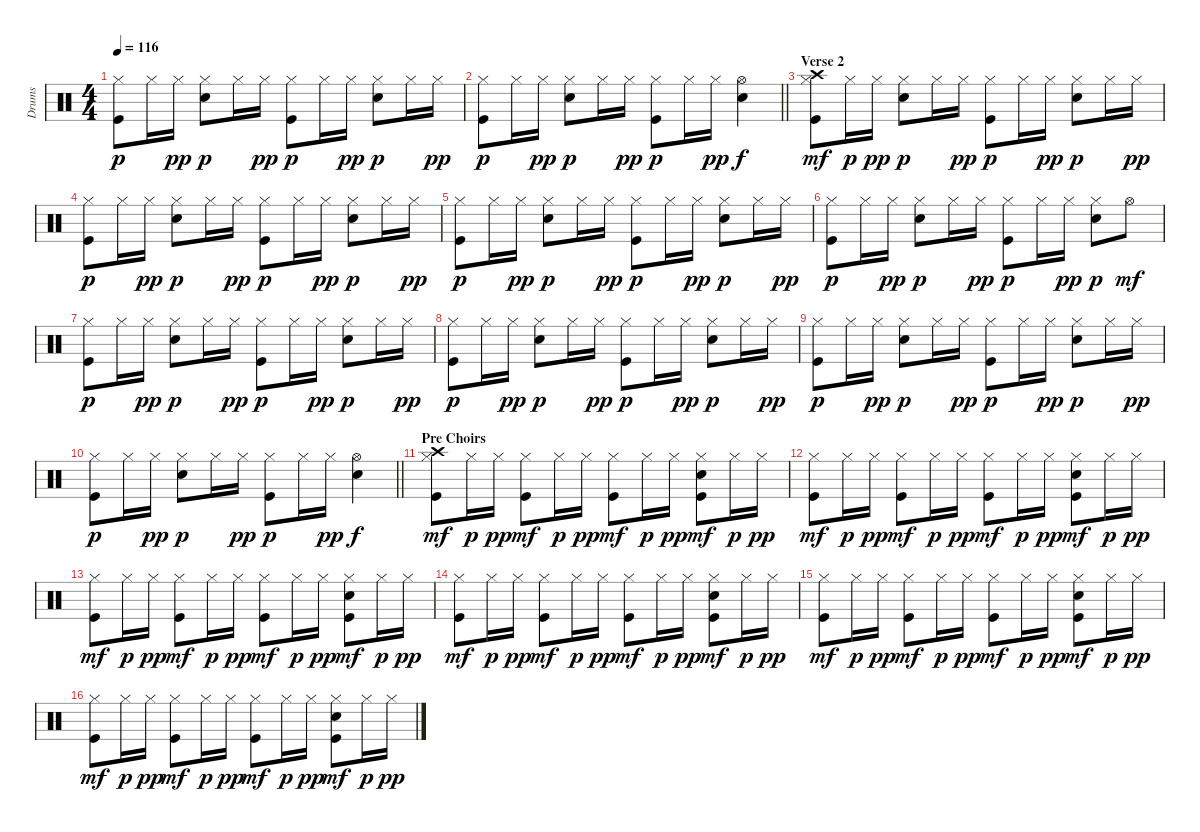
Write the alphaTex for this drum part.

\track ("Drums" "Drums") {instrument percussion}
\staff {score}
\articulation defaults
\ts (4 4)
\tempo 116
\clef neutral
\ks c
("Hi-Hat (closed)" "Kick (hit)").8{dy p} "Hi-Hat (closed)".16 "Hi-Hat (closed)".16{dy pp} ("Hi-Hat (closed)" "Snare (hit) 2").8{dy p} "Hi-Hat (closed)".16 "Hi-Hat (closed)".16{dy pp} ("Hi-Hat (closed)" "Kick (hit)").8{dy p} "Hi-Hat (closed)".16 "Hi-Hat (closed)".16{dy pp} ("Hi-Hat (closed)" "Snare (hit) 2").8{dy p} "Hi-Hat (closed)".16 "Hi-Hat (closed)".16{dy pp} |
\barLineRight lightlight
("Hi-Hat (closed)" "Kick (hit)").8{dy p} "Hi-Hat (closed)".16 "Hi-Hat (closed)".16{dy pp} ("Hi-Hat (closed)" "Snare (hit) 2").8{dy p} "Hi-Hat (closed)".16 "Hi-Hat (closed)".16{dy pp} ("Hi-Hat (closed)" "Kick (hit)").8{dy p} "Hi-Hat (closed)".16 "Hi-Hat (closed)".16{dy pp} ("Hi-Hat (open)" "Snare (hit) 2").4{dy f} |
\section ("" "Verse 2")
("Hi-Hat (closed)" "Crash high (hit)" "Kick (hit)").8{dy mf} "Hi-Hat (closed)".16{dy p} "Hi-Hat (closed)".16{dy pp} ("Hi-Hat (closed)" "Snare (hit) 2").8{dy p} "Hi-Hat (closed)".16 "Hi-Hat (closed)".16{dy pp} ("Hi-Hat (closed)" "Kick (hit)").8{dy p} "Hi-Hat (closed)".16 "Hi-Hat (closed)".16{dy pp} ("Hi-Hat (closed)" "Snare (hit) 2").8{dy p} "Hi-Hat (closed)".16 "Hi-Hat (closed)".16{dy pp} |
("Hi-Hat (closed)" "Kick (hit)").8{dy p} "Hi-Hat (closed)".16 "Hi-Hat (closed)".16{dy pp} ("Hi-Hat (closed)" "Snare (hit) 2").8{dy p} "Hi-Hat (closed)".16 "Hi-Hat (closed)".16{dy pp} ("Hi-Hat (closed)" "Kick (hit)").8{dy p} "Hi-Hat (closed)".16 "Hi-Hat (closed)".16{dy pp} ("Hi-Hat (closed)" "Snare (hit) 2").8{dy p} "Hi-Hat (closed)".16 "Hi-Hat (closed)".16{dy pp} |
("Hi-Hat (closed)" "Kick (hit)").8{dy p} "Hi-Hat (closed)".16 "Hi-Hat (closed)".16{dy pp} ("Hi-Hat (closed)" "Snare (hit) 2").8{dy p} "Hi-Hat (closed)".16 "Hi-Hat (closed)".16{dy pp} ("Hi-Hat (closed)" "Kick (hit)").8{dy p} "Hi-Hat (closed)".16 "Hi-Hat (closed)".16{dy pp} ("Hi-Hat (closed)" "Snare (hit) 2").8{dy p} "Hi-Hat (closed)".16 "Hi-Hat (closed)".16{dy pp} |
("Hi-Hat (closed)" "Kick (hit)").8{dy p} "Hi-Hat (closed)".16 "Hi-Hat (closed)".16{dy pp} ("Hi-Hat (closed)" "Snare (hit) 2").8{dy p} "Hi-Hat (closed)".16 "Hi-Hat (closed)".16{dy pp} ("Hi-Hat (closed)" "Kick (hit)").8{dy p} "Hi-Hat (closed)".16 "Hi-Hat (closed)".16{dy pp} ("Hi-Hat (closed)" "Snare (hit) 2").8{dy p} "Hi-Hat (open)".8{dy mf} |
("Hi-Hat (closed)" "Kick (hit)").8{dy p} "Hi-Hat (closed)".16 "Hi-Hat (closed)".16{dy pp} ("Hi-Hat (closed)" "Snare (hit) 2").8{dy p} "Hi-Hat (closed)".16 "Hi-Hat (closed)".16{dy pp} ("Hi-Hat (closed)" "Kick (hit)").8{dy p} "Hi-Hat (closed)".16 "Hi-Hat (closed)".16{dy pp} ("Hi-Hat (closed)" "Snare (hit) 2").8{dy p} "Hi-Hat (closed)".16 "Hi-Hat (closed)".16{dy pp} |
("Hi-Hat (closed)" "Kick (hit)").8{dy p} "Hi-Hat (closed)".16 "Hi-Hat (closed)".16{dy pp} ("Hi-Hat (closed)" "Snare (hit) 2").8{dy p} "Hi-Hat (closed)".16 "Hi-Hat (closed)".16{dy pp} ("Hi-Hat (closed)" "Kick (hit)").8{dy p} "Hi-Hat (closed)".16 "Hi-Hat (closed)".16{dy pp} ("Hi-Hat (closed)" "Snare (hit) 2").8{dy p} "Hi-Hat (closed)".16 "Hi-Hat (closed)".16{dy pp} |
("Hi-Hat (closed)" "Kick (hit)").8{dy p} "Hi-Hat (closed)".16 "Hi-Hat (closed)".16{dy pp} ("Hi-Hat (closed)" "Snare (hit) 2").8{dy p} "Hi-Hat (closed)".16 "Hi-Hat (closed)".16{dy pp} ("Hi-Hat (closed)" "Kick (hit)").8{dy p} "Hi-Hat (closed)".16 "Hi-Hat (closed)".16{dy pp} ("Hi-Hat (closed)" "Snare (hit) 2").8{dy p} "Hi-Hat (closed)".16 "Hi-Hat (closed)".16{dy pp} |
\barLineRight lightlight
("Hi-Hat (closed)" "Kick (hit)").8{dy p} "Hi-Hat (closed)".16 "Hi-Hat (closed)".16{dy pp} ("Hi-Hat (closed)" "Snare (hit) 2").8{dy p} "Hi-Hat (closed)".16 "Hi-Hat (closed)".16{dy pp} ("Hi-Hat (closed)" "Kick (hit)").8{dy p} "Hi-Hat (closed)".16 "Hi-Hat (closed)".16{dy pp} ("Hi-Hat (open)" "Snare (hit) 2").4{dy f} |
\section ("" "Pre Choirs")
("Hi-Hat (closed)" "Crash high (hit)" "Kick (hit)").8{dy mf} "Hi-Hat (closed)".16{dy p} "Hi-Hat (closed)".16{dy pp} ("Hi-Hat (closed)" "Kick (hit)").8{dy mf} "Hi-Hat (closed)".16{dy p} "Hi-Hat (closed)".16{dy pp} ("Hi-Hat (closed)" "Kick (hit)").8{dy mf} "Hi-Hat (closed)".16{dy p} "Hi-Hat (closed)".16{dy pp} ("Hi-Hat (closed)" "Snare (hit) 2" "Kick (hit)").8{dy mf} "Hi-Hat (closed)".16{dy p} "Hi-Hat (closed)".16{dy pp} |
("Hi-Hat (closed)" "Kick (hit)").8{dy mf} "Hi-Hat (closed)".16{dy p} "Hi-Hat (closed)".16{dy pp} ("Hi-Hat (closed)" "Kick (hit)").8{dy mf} "Hi-Hat (closed)".16{dy p} "Hi-Hat (closed)".16{dy pp} ("Hi-Hat (closed)" "Kick (hit)").8{dy mf} "Hi-Hat (closed)".16{dy p} "Hi-Hat (closed)".16{dy pp} ("Hi-Hat (closed)" "Snare (hit) 2" "Kick (hit)").8{dy mf} "Hi-Hat (closed)".16{dy p} "Hi-Hat (closed)".16{dy pp} |
("Hi-Hat (closed)" "Kick (hit)").8{dy mf} "Hi-Hat (closed)".16{dy p} "Hi-Hat (closed)".16{dy pp} ("Hi-Hat (closed)" "Kick (hit)").8{dy mf} "Hi-Hat (closed)".16{dy p} "Hi-Hat (closed)".16{dy pp} ("Hi-Hat (closed)" "Kick (hit)").8{dy mf} "Hi-Hat (closed)".16{dy p} "Hi-Hat (closed)".16{dy pp} ("Hi-Hat (closed)" "Snare (hit) 2" "Kick (hit)").8{dy mf} "Hi-Hat (closed)".16{dy p} "Hi-Hat (closed)".16{dy pp} |
("Hi-Hat (closed)" "Kick (hit)").8{dy mf} "Hi-Hat (closed)".16{dy p} "Hi-Hat (closed)".16{dy pp} ("Hi-Hat (closed)" "Kick (hit)").8{dy mf} "Hi-Hat (closed)".16{dy p} "Hi-Hat (closed)".16{dy pp} ("Hi-Hat (closed)" "Kick (hit)").8{dy mf} "Hi-Hat (closed)".16{dy p} "Hi-Hat (closed)".16{dy pp} ("Hi-Hat (closed)" "Snare (hit) 2" "Kick (hit)").8{dy mf} "Hi-Hat (closed)".16{dy p} "Hi-Hat (closed)".16{dy pp} |
("Hi-Hat (closed)" "Kick (hit)").8{dy mf} "Hi-Hat (closed)".16{dy p} "Hi-Hat (closed)".16{dy pp} ("Hi-Hat (closed)" "Kick (hit)").8{dy mf} "Hi-Hat (closed)".16{dy p} "Hi-Hat (closed)".16{dy pp} ("Hi-Hat (closed)" "Kick (hit)").8{dy mf} "Hi-Hat (closed)".16{dy p} "Hi-Hat (closed)".16{dy pp} ("Hi-Hat (closed)" "Snare (hit) 2" "Kick (hit)").8{dy mf} "Hi-Hat (closed)".16{dy p} "Hi-Hat (closed)".16{dy pp} |
("Hi-Hat (closed)" "Kick (hit)").8{dy mf} "Hi-Hat (closed)".16{dy p} "Hi-Hat (closed)".16{dy pp} ("Hi-Hat (closed)" "Kick (hit)").8{dy mf} "Hi-Hat (closed)".16{dy p} "Hi-Hat (closed)".16{dy pp} ("Hi-Hat (closed)" "Kick (hit)").8{dy mf} "Hi-Hat (closed)".16{dy p} "Hi-Hat (closed)".16{dy pp} ("Hi-Hat (closed)" "Snare (hit) 2" "Kick (hit)").8{dy mf} "Hi-Hat (closed)".16{dy p} "Hi-Hat (closed)".16{dy pp}
